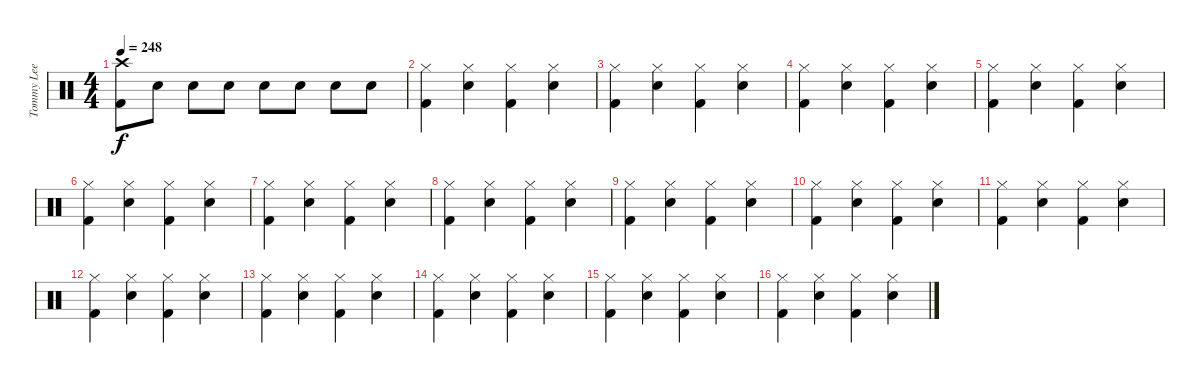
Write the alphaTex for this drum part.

\track ("Tommy Lee" "Tommy Lee") {instrument percussion}
\staff {score}
\articulation defaults
\ts (4 4)
\tempo 248
\clef neutral
\ks c
("Crash high (hit)" "Kick (hit) 2").8{dy f} "Electric Snare (hit)".8 "Electric Snare (hit)".8 "Electric Snare (hit)".8 "Electric Snare (hit)".8 "Electric Snare (hit)".8 "Electric Snare (hit)".8 "Electric Snare (hit)".8 |
("Hi-Hat (closed)" "Kick (hit) 2").4 ("Hi-Hat (closed)" "Electric Snare (hit)").4 ("Hi-Hat (closed)" "Kick (hit) 2").4 ("Hi-Hat (closed)" "Electric Snare (hit)").4 |
("Hi-Hat (closed)" "Kick (hit) 2").4 ("Hi-Hat (closed)" "Electric Snare (hit)").4 ("Hi-Hat (closed)" "Kick (hit) 2").4 ("Hi-Hat (closed)" "Electric Snare (hit)").4 |
("Hi-Hat (closed)" "Kick (hit) 2").4 ("Hi-Hat (closed)" "Electric Snare (hit)").4 ("Hi-Hat (closed)" "Kick (hit) 2").4 ("Hi-Hat (closed)" "Electric Snare (hit)").4 |
("Hi-Hat (closed)" "Kick (hit) 2").4 ("Hi-Hat (closed)" "Electric Snare (hit)").4 ("Hi-Hat (closed)" "Kick (hit) 2").4 ("Hi-Hat (closed)" "Electric Snare (hit)").4 |
("Hi-Hat (closed)" "Kick (hit) 2").4 ("Hi-Hat (closed)" "Electric Snare (hit)").4 ("Hi-Hat (closed)" "Kick (hit) 2").4 ("Hi-Hat (closed)" "Electric Snare (hit)").4 |
("Hi-Hat (closed)" "Kick (hit) 2").4 ("Hi-Hat (closed)" "Electric Snare (hit)").4 ("Hi-Hat (closed)" "Kick (hit) 2").4 ("Hi-Hat (closed)" "Electric Snare (hit)").4 |
("Hi-Hat (closed)" "Kick (hit) 2").4 ("Hi-Hat (closed)" "Electric Snare (hit)").4 ("Hi-Hat (closed)" "Kick (hit) 2").4 ("Hi-Hat (closed)" "Electric Snare (hit)").4 |
("Hi-Hat (closed)" "Kick (hit) 2").4 ("Hi-Hat (closed)" "Electric Snare (hit)").4 ("Hi-Hat (closed)" "Kick (hit) 2").4 ("Hi-Hat (closed)" "Electric Snare (hit)").4 |
("Hi-Hat (closed)" "Kick (hit) 2").4 ("Hi-Hat (closed)" "Electric Snare (hit)").4 ("Hi-Hat (closed)" "Kick (hit) 2").4 ("Hi-Hat (closed)" "Electric Snare (hit)").4 |
("Hi-Hat (closed)" "Kick (hit) 2").4 ("Hi-Hat (closed)" "Electric Snare (hit)").4 ("Hi-Hat (closed)" "Kick (hit) 2").4 ("Hi-Hat (closed)" "Electric Snare (hit)").4 |
("Hi-Hat (closed)" "Kick (hit) 2").4 ("Hi-Hat (closed)" "Electric Snare (hit)").4 ("Hi-Hat (closed)" "Kick (hit) 2").4 ("Hi-Hat (closed)" "Electric Snare (hit)").4 |
("Hi-Hat (closed)" "Kick (hit) 2").4 ("Hi-Hat (closed)" "Electric Snare (hit)").4 ("Hi-Hat (closed)" "Kick (hit) 2").4 ("Hi-Hat (closed)" "Electric Snare (hit)").4 |
("Hi-Hat (closed)" "Kick (hit) 2").4 ("Hi-Hat (closed)" "Electric Snare (hit)").4 ("Hi-Hat (closed)" "Kick (hit) 2").4 ("Hi-Hat (closed)" "Electric Snare (hit)").4 |
("Hi-Hat (closed)" "Kick (hit) 2").4 ("Hi-Hat (closed)" "Electric Snare (hit)").4 ("Hi-Hat (closed)" "Kick (hit) 2").4 ("Hi-Hat (closed)" "Electric Snare (hit)").4 |
("Hi-Hat (closed)" "Kick (hit) 2").4 ("Hi-Hat (closed)" "Electric Snare (hit)").4 ("Hi-Hat (closed)" "Kick (hit) 2").4 ("Hi-Hat (closed)" "Electric Snare (hit)").4
